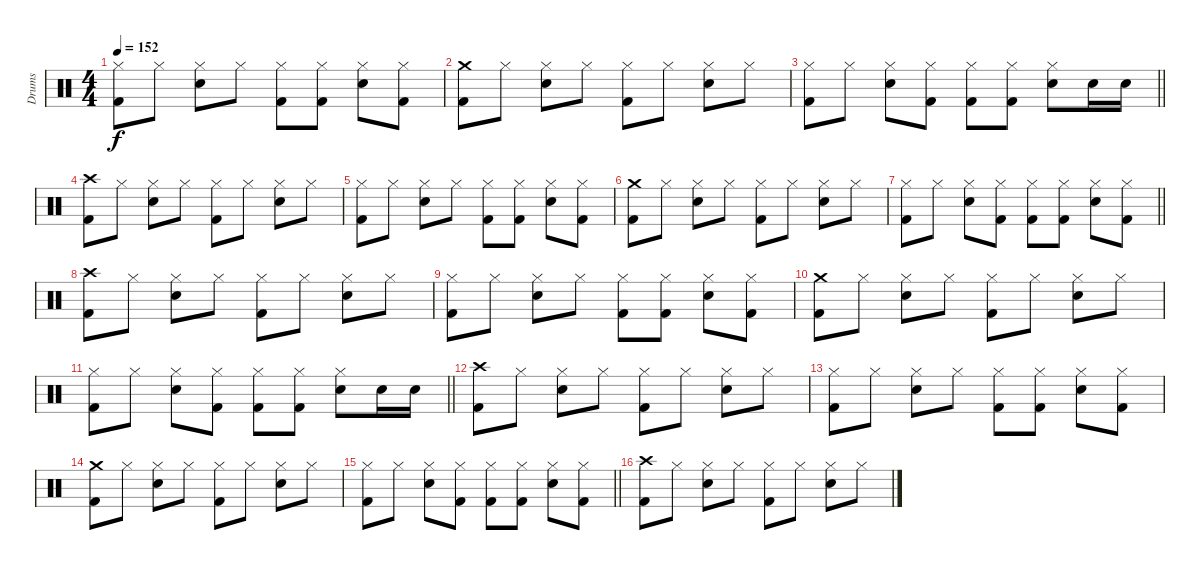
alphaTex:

\track ("Drums" "Drums") {instrument percussion}
\staff
\articulation defaults
\ts (4 4)
\tempo 152
\clef neutral
\ks c
("Hi-Hat (closed)" "Kick (hit) 2").8{dy f} "Hi-Hat (closed)".8 ("Hi-Hat (closed)" "Electric Snare (hit)").8 "Hi-Hat (closed)".8 ("Hi-Hat (closed)" "Kick (hit) 2").8 ("Hi-Hat (closed)" "Kick (hit) 2").8 ("Hi-Hat (closed)" "Electric Snare (hit)").8 ("Hi-Hat (closed)" "Kick (hit) 2").8 |
("Crash medium (hit)" "Kick (hit) 2").8 "Hi-Hat (closed)".8 ("Hi-Hat (closed)" "Electric Snare (hit)").8 "Hi-Hat (closed)".8 ("Hi-Hat (closed)" "Kick (hit) 2").8 "Hi-Hat (closed)".8 ("Hi-Hat (closed)" "Electric Snare (hit)").8 "Hi-Hat (closed)".8 |
\barLineRight lightlight
("Hi-Hat (closed)" "Kick (hit) 2").8 "Hi-Hat (closed)".8 ("Hi-Hat (closed)" "Electric Snare (hit)").8 ("Hi-Hat (closed)" "Kick (hit) 2").8 ("Hi-Hat (closed)" "Kick (hit) 2").8 ("Hi-Hat (closed)" "Kick (hit) 2").8 ("Hi-Hat (closed)" "Electric Snare (hit)").8 "Electric Snare (hit)".16 "Electric Snare (hit)".16 |
("Crash high (hit)" "Kick (hit) 2").8 "Hi-Hat (closed)".8 ("Hi-Hat (closed)" "Electric Snare (hit)").8 "Hi-Hat (closed)".8 ("Hi-Hat (closed)" "Kick (hit) 2").8 "Hi-Hat (closed)".8 ("Hi-Hat (closed)" "Electric Snare (hit)").8 "Hi-Hat (closed)".8 |
("Hi-Hat (closed)" "Kick (hit) 2").8 "Hi-Hat (closed)".8 ("Hi-Hat (closed)" "Electric Snare (hit)").8 "Hi-Hat (closed)".8 ("Hi-Hat (closed)" "Kick (hit) 2").8 ("Hi-Hat (closed)" "Kick (hit) 2").8 ("Hi-Hat (closed)" "Electric Snare (hit)").8 ("Hi-Hat (closed)" "Kick (hit) 2").8 |
("Crash medium (hit)" "Kick (hit) 2").8 "Hi-Hat (closed)".8 ("Hi-Hat (closed)" "Electric Snare (hit)").8 "Hi-Hat (closed)".8 ("Hi-Hat (closed)" "Kick (hit) 2").8 "Hi-Hat (closed)".8 ("Hi-Hat (closed)" "Electric Snare (hit)").8 "Hi-Hat (closed)".8 |
\barLineRight lightlight
("Hi-Hat (closed)" "Kick (hit) 2").8 "Hi-Hat (closed)".8 ("Hi-Hat (closed)" "Electric Snare (hit)").8 ("Hi-Hat (closed)" "Kick (hit) 2").8 ("Hi-Hat (closed)" "Kick (hit) 2").8 ("Hi-Hat (closed)" "Kick (hit) 2").8 ("Hi-Hat (closed)" "Electric Snare (hit)").8 ("Hi-Hat (closed)" "Kick (hit) 2").8 |
("Crash high (hit)" "Kick (hit) 2").8 "Hi-Hat (closed)".8 ("Hi-Hat (closed)" "Electric Snare (hit)").8 "Hi-Hat (closed)".8 ("Hi-Hat (closed)" "Kick (hit) 2").8 "Hi-Hat (closed)".8 ("Hi-Hat (closed)" "Electric Snare (hit)").8 "Hi-Hat (closed)".8 |
("Hi-Hat (closed)" "Kick (hit) 2").8 "Hi-Hat (closed)".8 ("Hi-Hat (closed)" "Electric Snare (hit)").8 "Hi-Hat (closed)".8 ("Hi-Hat (closed)" "Kick (hit) 2").8 ("Hi-Hat (closed)" "Kick (hit) 2").8 ("Hi-Hat (closed)" "Electric Snare (hit)").8 ("Hi-Hat (closed)" "Kick (hit) 2").8 |
("Crash medium (hit)" "Kick (hit) 2").8 "Hi-Hat (closed)".8 ("Hi-Hat (closed)" "Electric Snare (hit)").8 "Hi-Hat (closed)".8 ("Hi-Hat (closed)" "Kick (hit) 2").8 "Hi-Hat (closed)".8 ("Hi-Hat (closed)" "Electric Snare (hit)").8 "Hi-Hat (closed)".8 |
\barLineRight lightlight
("Hi-Hat (closed)" "Kick (hit) 2").8 "Hi-Hat (closed)".8 ("Hi-Hat (closed)" "Electric Snare (hit)").8 ("Hi-Hat (closed)" "Kick (hit) 2").8 ("Hi-Hat (closed)" "Kick (hit) 2").8 ("Hi-Hat (closed)" "Kick (hit) 2").8 ("Hi-Hat (closed)" "Electric Snare (hit)").8 "Electric Snare (hit)".16 "Electric Snare (hit)".16 |
("Crash high (hit)" "Kick (hit) 2").8 "Hi-Hat (closed)".8 ("Hi-Hat (closed)" "Electric Snare (hit)").8 "Hi-Hat (closed)".8 ("Hi-Hat (closed)" "Kick (hit) 2").8 "Hi-Hat (closed)".8 ("Hi-Hat (closed)" "Electric Snare (hit)").8 "Hi-Hat (closed)".8 |
("Hi-Hat (closed)" "Kick (hit) 2").8 "Hi-Hat (closed)".8 ("Hi-Hat (closed)" "Electric Snare (hit)").8 "Hi-Hat (closed)".8 ("Hi-Hat (closed)" "Kick (hit) 2").8 ("Hi-Hat (closed)" "Kick (hit) 2").8 ("Hi-Hat (closed)" "Electric Snare (hit)").8 ("Hi-Hat (closed)" "Kick (hit) 2").8 |
("Crash medium (hit)" "Kick (hit) 2").8 "Hi-Hat (closed)".8 ("Hi-Hat (closed)" "Electric Snare (hit)").8 "Hi-Hat (closed)".8 ("Hi-Hat (closed)" "Kick (hit) 2").8 "Hi-Hat (closed)".8 ("Hi-Hat (closed)" "Electric Snare (hit)").8 "Hi-Hat (closed)".8 |
\barLineRight lightlight
("Hi-Hat (closed)" "Kick (hit) 2").8 "Hi-Hat (closed)".8 ("Hi-Hat (closed)" "Electric Snare (hit)").8 ("Hi-Hat (closed)" "Kick (hit) 2").8 ("Hi-Hat (closed)" "Kick (hit) 2").8 ("Hi-Hat (closed)" "Kick (hit) 2").8 ("Hi-Hat (closed)" "Electric Snare (hit)").8 ("Hi-Hat (closed)" "Kick (hit) 2").8 |
("Crash high (hit)" "Kick (hit) 2").8 "Hi-Hat (closed)".8 ("Hi-Hat (closed)" "Electric Snare (hit)").8 "Hi-Hat (closed)".8 ("Hi-Hat (closed)" "Kick (hit) 2").8 "Hi-Hat (closed)".8 ("Hi-Hat (closed)" "Electric Snare (hit)").8 "Hi-Hat (closed)".8
